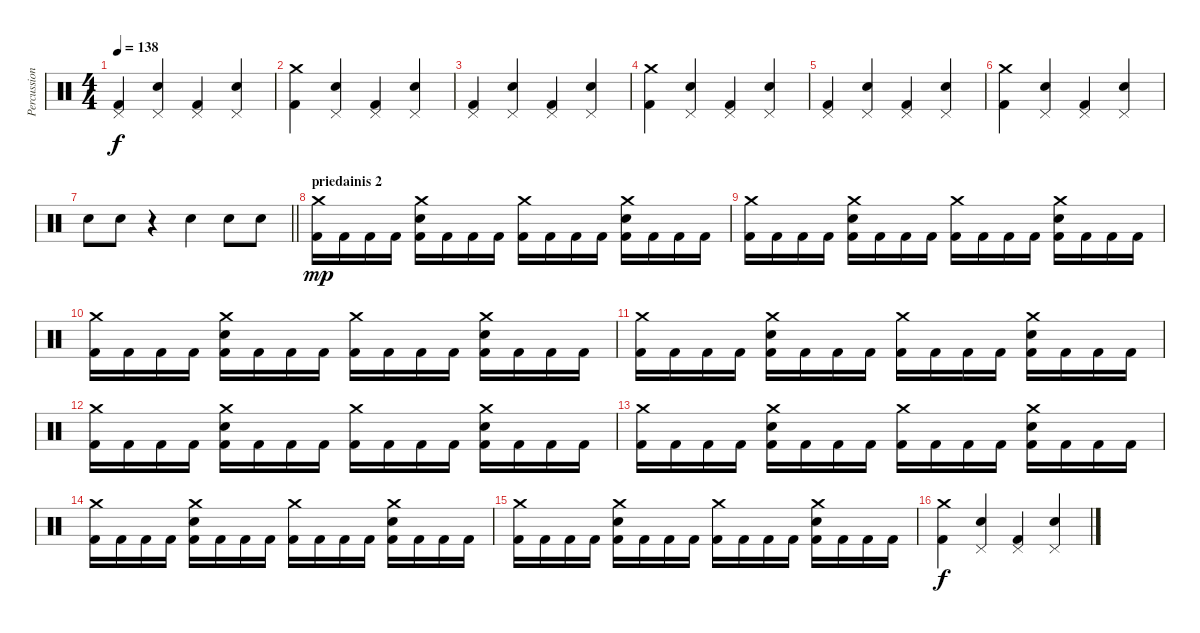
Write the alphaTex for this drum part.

\track ("Percussion" "Percussion") {instrument percussion}
\staff {score}
\articulation defaults
\ts (4 4)
\tempo 138
\clef neutral
\ks c
("Pedal Hi-Hat (hit)" "Kick (hit) 2").4{dy f} ("Pedal Hi-Hat (hit)" "Snare (hit) 2").4 ("Pedal Hi-Hat (hit)" "Kick (hit) 2").4 ("Pedal Hi-Hat (hit)" "Snare (hit) 2").4 |
("Crash medium (hit)" "Kick (hit) 2").4 ("Pedal Hi-Hat (hit)" "Snare (hit) 2").4 ("Pedal Hi-Hat (hit)" "Kick (hit) 2").4 ("Pedal Hi-Hat (hit)" "Snare (hit) 2").4 |
("Pedal Hi-Hat (hit)" "Kick (hit) 2").4 ("Pedal Hi-Hat (hit)" "Snare (hit) 2").4 ("Pedal Hi-Hat (hit)" "Kick (hit) 2").4 ("Pedal Hi-Hat (hit)" "Snare (hit) 2").4 |
("Crash medium (hit)" "Kick (hit) 2").4 ("Pedal Hi-Hat (hit)" "Snare (hit) 2").4 ("Pedal Hi-Hat (hit)" "Kick (hit) 2").4 ("Pedal Hi-Hat (hit)" "Snare (hit) 2").4 |
("Pedal Hi-Hat (hit)" "Kick (hit) 2").4 ("Pedal Hi-Hat (hit)" "Snare (hit) 2").4 ("Pedal Hi-Hat (hit)" "Kick (hit) 2").4 ("Pedal Hi-Hat (hit)" "Snare (hit) 2").4 |
("Crash medium (hit)" "Kick (hit) 2").4 ("Pedal Hi-Hat (hit)" "Snare (hit) 2").4 ("Pedal Hi-Hat (hit)" "Kick (hit) 2").4 ("Pedal Hi-Hat (hit)" "Snare (hit) 2").4 |
\barLineRight lightlight "Snare (hit) 2".8 "Snare (hit) 2".8
r.4 "Snare (hit) 2".4 "Snare (hit) 2".8 "Snare (hit) 2".8 |
\section ("" "priedainis 2")
("Crash medium (hit)" "Kick (hit) 2").16{dy mp} "Kick (hit) 2".16 "Kick (hit) 2".16 "Kick (hit) 2".16 ("Crash medium (hit)" "Snare (hit) 2" "Kick (hit) 2").16 "Kick (hit) 2".16 "Kick (hit) 2".16 "Kick (hit) 2".16 ("Crash medium (hit)" "Kick (hit) 2").16 "Kick (hit) 2".16 "Kick (hit) 2".16 "Kick (hit) 2".16 ("Crash medium (hit)" "Snare (hit) 2" "Kick (hit) 2").16 "Kick (hit) 2".16 "Kick (hit) 2".16 "Kick (hit) 2".16 |
("Crash medium (hit)" "Kick (hit) 2").16 "Kick (hit) 2".16 "Kick (hit) 2".16 "Kick (hit) 2".16 ("Crash medium (hit)" "Snare (hit) 2" "Kick (hit) 2").16 "Kick (hit) 2".16 "Kick (hit) 2".16 "Kick (hit) 2".16 ("Crash medium (hit)" "Kick (hit) 2").16 "Kick (hit) 2".16 "Kick (hit) 2".16 "Kick (hit) 2".16 ("Crash medium (hit)" "Snare (hit) 2" "Kick (hit) 2").16 "Kick (hit) 2".16 "Kick (hit) 2".16 "Kick (hit) 2".16 |
("Crash medium (hit)" "Kick (hit) 2").16 "Kick (hit) 2".16 "Kick (hit) 2".16 "Kick (hit) 2".16 ("Crash medium (hit)" "Snare (hit) 2" "Kick (hit) 2").16 "Kick (hit) 2".16 "Kick (hit) 2".16 "Kick (hit) 2".16 ("Crash medium (hit)" "Kick (hit) 2").16 "Kick (hit) 2".16 "Kick (hit) 2".16 "Kick (hit) 2".16 ("Crash medium (hit)" "Snare (hit) 2" "Kick (hit) 2").16 "Kick (hit) 2".16 "Kick (hit) 2".16 "Kick (hit) 2".16 |
("Crash medium (hit)" "Kick (hit) 2").16 "Kick (hit) 2".16 "Kick (hit) 2".16 "Kick (hit) 2".16 ("Crash medium (hit)" "Snare (hit) 2" "Kick (hit) 2").16 "Kick (hit) 2".16 "Kick (hit) 2".16 "Kick (hit) 2".16 ("Crash medium (hit)" "Kick (hit) 2").16 "Kick (hit) 2".16 "Kick (hit) 2".16 "Kick (hit) 2".16 ("Crash medium (hit)" "Snare (hit) 2" "Kick (hit) 2").16 "Kick (hit) 2".16 "Kick (hit) 2".16 "Kick (hit) 2".16 |
("Crash medium (hit)" "Kick (hit) 2").16 "Kick (hit) 2".16 "Kick (hit) 2".16 "Kick (hit) 2".16 ("Crash medium (hit)" "Snare (hit) 2" "Kick (hit) 2").16 "Kick (hit) 2".16 "Kick (hit) 2".16 "Kick (hit) 2".16 ("Crash medium (hit)" "Kick (hit) 2").16 "Kick (hit) 2".16 "Kick (hit) 2".16 "Kick (hit) 2".16 ("Crash medium (hit)" "Snare (hit) 2" "Kick (hit) 2").16 "Kick (hit) 2".16 "Kick (hit) 2".16 "Kick (hit) 2".16 |
("Crash medium (hit)" "Kick (hit) 2").16 "Kick (hit) 2".16 "Kick (hit) 2".16 "Kick (hit) 2".16 ("Crash medium (hit)" "Snare (hit) 2" "Kick (hit) 2").16 "Kick (hit) 2".16 "Kick (hit) 2".16 "Kick (hit) 2".16 ("Crash medium (hit)" "Kick (hit) 2").16 "Kick (hit) 2".16 "Kick (hit) 2".16 "Kick (hit) 2".16 ("Crash medium (hit)" "Snare (hit) 2" "Kick (hit) 2").16 "Kick (hit) 2".16 "Kick (hit) 2".16 "Kick (hit) 2".16 |
("Crash medium (hit)" "Kick (hit) 2").16 "Kick (hit) 2".16 "Kick (hit) 2".16 "Kick (hit) 2".16 ("Crash medium (hit)" "Snare (hit) 2" "Kick (hit) 2").16 "Kick (hit) 2".16 "Kick (hit) 2".16 "Kick (hit) 2".16 ("Crash medium (hit)" "Kick (hit) 2").16 "Kick (hit) 2".16 "Kick (hit) 2".16 "Kick (hit) 2".16 ("Crash medium (hit)" "Snare (hit) 2" "Kick (hit) 2").16 "Kick (hit) 2".16 "Kick (hit) 2".16 "Kick (hit) 2".16 |
("Crash medium (hit)" "Kick (hit) 2").16 "Kick (hit) 2".16 "Kick (hit) 2".16 "Kick (hit) 2".16 ("Crash medium (hit)" "Snare (hit) 2" "Kick (hit) 2").16 "Kick (hit) 2".16 "Kick (hit) 2".16 "Kick (hit) 2".16 ("Crash medium (hit)" "Kick (hit) 2").16 "Kick (hit) 2".16 "Kick (hit) 2".16 "Kick (hit) 2".16 ("Crash medium (hit)" "Snare (hit) 2" "Kick (hit) 2").16 "Kick (hit) 2".16 "Kick (hit) 2".16 "Kick (hit) 2".16 |
("Crash medium (hit)" "Kick (hit) 2").4{dy f} ("Pedal Hi-Hat (hit)" "Snare (hit) 2").4 ("Pedal Hi-Hat (hit)" "Kick (hit) 2").4 ("Pedal Hi-Hat (hit)" "Snare (hit) 2").4
